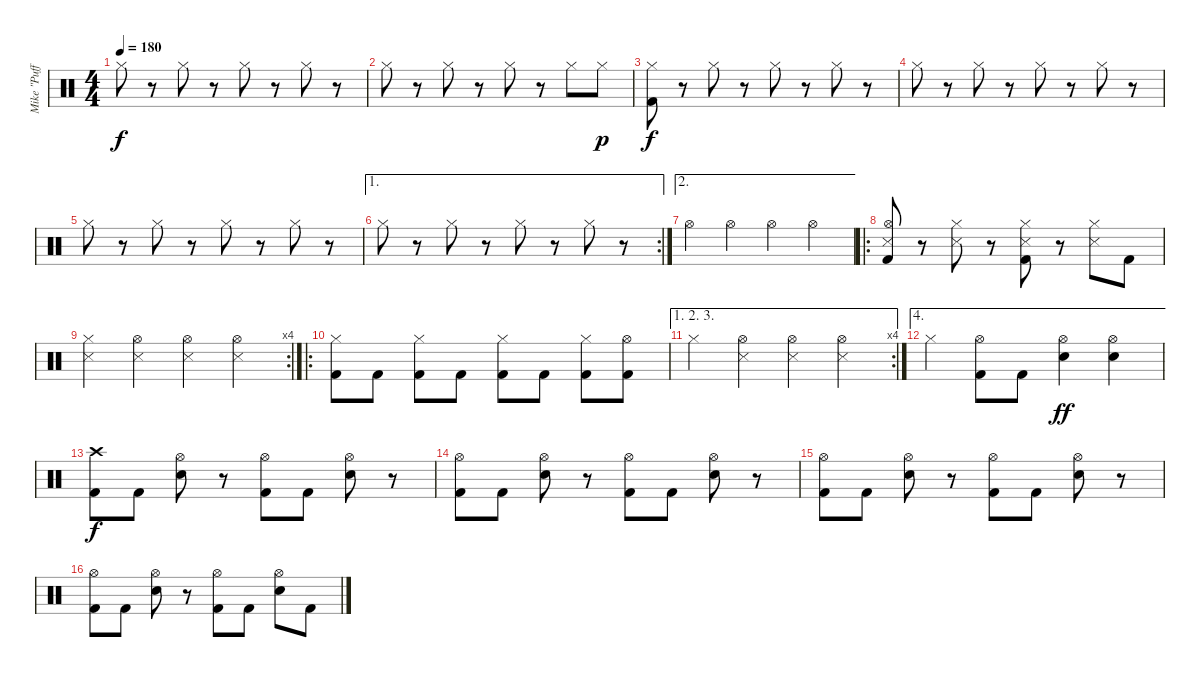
\track ("Mike \"Puffy\" Bordin" "Mike \"Puff") {instrument percussion}
\staff {score}
\articulation defaults
\ts (4 4)
\tempo 180
\clef neutral
\ks c "Hi-Hat (closed)".8{dy f}
r.8 "Hi-Hat (closed)".8 r.8 "Hi-Hat (closed)".8 r.8 "Hi-Hat (closed)".8 r.8 |
"Hi-Hat (closed)".8 r.8 "Hi-Hat (closed)".8 r.8 "Hi-Hat (closed)".8 r.8 "Hi-Hat (closed)".8 "Hi-Hat (closed)".8{dy p} |
("Hi-Hat (closed)" "Kick (hit) 2").8{dy f} r.8 "Hi-Hat (closed)".8 r.8 "Hi-Hat (closed)".8 r.8 "Hi-Hat (closed)".8 r.8 |
"Hi-Hat (closed)".8 r.8 "Hi-Hat (closed)".8 r.8 "Hi-Hat (closed)".8 r.8 "Hi-Hat (closed)".8 r.8 |
"Hi-Hat (closed)".8 r.8 "Hi-Hat (closed)".8 r.8 "Hi-Hat (closed)".8 r.8 "Hi-Hat (closed)".8 r.8 |
\ae 1
\rc 2 "Hi-Hat (closed)".8
r.8 "Hi-Hat (closed)".8 r.8 "Hi-Hat (closed)".8 r.8 "Hi-Hat (closed)".8 r.8 |
\ae 2 "Hi-Hat (open)".4 "Hi-Hat (open)".4 "Hi-Hat (open)".4 "Hi-Hat (open)".4
|
\ro
("Hi-Hat (open)" "Snare (side stick) 3" "Kick (hit) 2").8 r.8 ("Hi-Hat (closed)" "Snare (side stick) 3").8 r.8 ("Hi-Hat (closed)" "Snare (side stick) 3" "Kick (hit) 2").8 r.8 ("Hi-Hat (closed)" "Snare (side stick) 3").8 "Kick (hit) 2".8 |
\rc 4
("Hi-Hat (closed)" "Snare (side stick) 3").4 ("Hi-Hat (open)" "Snare (side stick) 3").4 ("Hi-Hat (open)" "Snare (side stick) 3").4 ("Hi-Hat (open)" "Snare (side stick) 3").4 |
\ro
("Hi-Hat (closed)" "Kick (hit) 2").8 "Kick (hit) 2".8 ("Hi-Hat (closed)" "Kick (hit) 2").8 "Kick (hit) 2".8 ("Hi-Hat (closed)" "Kick (hit) 2").8 "Kick (hit) 2".8 ("Hi-Hat (closed)" "Kick (hit) 2").8 ("Hi-Hat (open)" "Kick (hit) 2").8 |
\ae (1 2 3)
\rc 4 "Hi-Hat (closed)".4
("Hi-Hat (open)" "Snare (side stick) 3").4 ("Hi-Hat (open)" "Snare (side stick) 3").4 ("Hi-Hat (open)" "Snare (side stick) 3").4 |
\ae 4 "Hi-Hat (closed)".4
("Hi-Hat (open)" "Kick (hit) 2").8 "Kick (hit) 2".8 ("Hi-Hat (open)" "Electric Snare (hit)").4{dy ff} ("Hi-Hat (open)" "Electric Snare (hit)").4 |
("Crash high (hit)" "Kick (hit) 2").8{dy f} "Kick (hit) 2".8 ("Hi-Hat (open)" "Electric Snare (hit)").8 r.8 ("Hi-Hat (open)" "Kick (hit) 2").8 "Kick (hit) 2".8 ("Hi-Hat (open)" "Electric Snare (hit)").8 r.8 |
("Hi-Hat (open)" "Kick (hit) 2").8 "Kick (hit) 2".8 ("Hi-Hat (open)" "Electric Snare (hit)").8 r.8 ("Hi-Hat (open)" "Kick (hit) 2").8 "Kick (hit) 2".8 ("Hi-Hat (open)" "Electric Snare (hit)").8 r.8 |
("Hi-Hat (open)" "Kick (hit) 2").8 "Kick (hit) 2".8 ("Hi-Hat (open)" "Electric Snare (hit)").8 r.8 ("Hi-Hat (open)" "Kick (hit) 2").8 "Kick (hit) 2".8 ("Hi-Hat (open)" "Electric Snare (hit)").8 r.8 |
("Hi-Hat (open)" "Kick (hit) 2").8 "Kick (hit) 2".8 ("Hi-Hat (open)" "Electric Snare (hit)").8 r.8 ("Hi-Hat (open)" "Kick (hit) 2").8 "Kick (hit) 2".8 ("Hi-Hat (open)" "Electric Snare (hit)").8 "Kick (hit) 2".8
